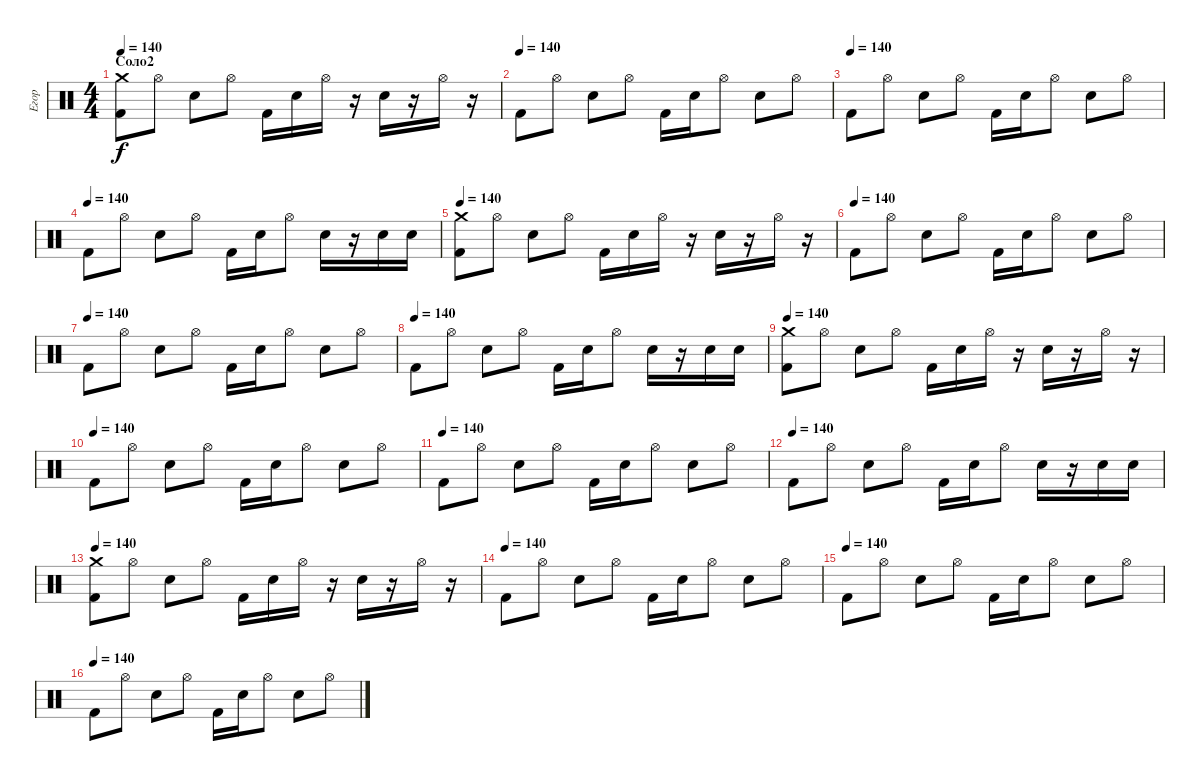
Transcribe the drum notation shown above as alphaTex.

\track ("Егор" "Егор") {instrument percussion}
\staff {score}
\articulation defaults
\ts (4 4)
\section ("" "Соло2")
\tempo 140
\clef neutral
\ks c
("Crash medium (hit)" "Kick (hit) 2").8{dy f} "Hi-Hat (open)".8 "Snare (hit) 2".8 "Hi-Hat (open)".8 "Kick (hit) 2".16 "Snare (hit) 2".16 "Hi-Hat (open)".16 r.16 "Snare (hit) 2".16 r.16 "Hi-Hat (open)".16 r.16 |
\tempo (140)
"Kick (hit) 2".8 "Hi-Hat (open)".8 "Snare (hit) 2".8 "Hi-Hat (open)".8 "Kick (hit) 2".16 "Snare (hit) 2".16 "Hi-Hat (open)".8 "Snare (hit) 2".8 "Hi-Hat (open)".8 |
\tempo (140)
"Kick (hit) 2".8 "Hi-Hat (open)".8 "Snare (hit) 2".8 "Hi-Hat (open)".8 "Kick (hit) 2".16 "Snare (hit) 2".16 "Hi-Hat (open)".8 "Snare (hit) 2".8 "Hi-Hat (open)".8 |
\tempo (140)
"Kick (hit) 2".8 "Hi-Hat (open)".8 "Snare (hit) 2".8 "Hi-Hat (open)".8 "Kick (hit) 2".16 "Snare (hit) 2".16 "Hi-Hat (open)".8 "Snare (hit) 2".16 r.16 "Snare (hit) 2".16 "Snare (hit) 2".16 |
\tempo 140
("Crash medium (hit)" "Kick (hit) 2").8 "Hi-Hat (open)".8 "Snare (hit) 2".8 "Hi-Hat (open)".8 "Kick (hit) 2".16 "Snare (hit) 2".16 "Hi-Hat (open)".16 r.16 "Snare (hit) 2".16 r.16 "Hi-Hat (open)".16 r.16 |
\tempo (140)
"Kick (hit) 2".8 "Hi-Hat (open)".8 "Snare (hit) 2".8 "Hi-Hat (open)".8 "Kick (hit) 2".16 "Snare (hit) 2".16 "Hi-Hat (open)".8 "Snare (hit) 2".8 "Hi-Hat (open)".8 |
\tempo (140)
"Kick (hit) 2".8 "Hi-Hat (open)".8 "Snare (hit) 2".8 "Hi-Hat (open)".8 "Kick (hit) 2".16 "Snare (hit) 2".16 "Hi-Hat (open)".8 "Snare (hit) 2".8 "Hi-Hat (open)".8 |
\tempo (140)
"Kick (hit) 2".8 "Hi-Hat (open)".8 "Snare (hit) 2".8 "Hi-Hat (open)".8 "Kick (hit) 2".16 "Snare (hit) 2".16 "Hi-Hat (open)".8 "Snare (hit) 2".16 r.16 "Snare (hit) 2".16 "Snare (hit) 2".16 |
\tempo 140
("Crash medium (hit)" "Kick (hit) 2").8 "Hi-Hat (open)".8 "Snare (hit) 2".8 "Hi-Hat (open)".8 "Kick (hit) 2".16 "Snare (hit) 2".16 "Hi-Hat (open)".16 r.16 "Snare (hit) 2".16 r.16 "Hi-Hat (open)".16 r.16 |
\tempo (140)
"Kick (hit) 2".8 "Hi-Hat (open)".8 "Snare (hit) 2".8 "Hi-Hat (open)".8 "Kick (hit) 2".16 "Snare (hit) 2".16 "Hi-Hat (open)".8 "Snare (hit) 2".8 "Hi-Hat (open)".8 |
\tempo (140)
"Kick (hit) 2".8 "Hi-Hat (open)".8 "Snare (hit) 2".8 "Hi-Hat (open)".8 "Kick (hit) 2".16 "Snare (hit) 2".16 "Hi-Hat (open)".8 "Snare (hit) 2".8 "Hi-Hat (open)".8 |
\tempo (140)
"Kick (hit) 2".8 "Hi-Hat (open)".8 "Snare (hit) 2".8 "Hi-Hat (open)".8 "Kick (hit) 2".16 "Snare (hit) 2".16 "Hi-Hat (open)".8 "Snare (hit) 2".16 r.16 "Snare (hit) 2".16 "Snare (hit) 2".16 |
\tempo 140
("Crash medium (hit)" "Kick (hit) 2").8 "Hi-Hat (open)".8 "Snare (hit) 2".8 "Hi-Hat (open)".8 "Kick (hit) 2".16 "Snare (hit) 2".16 "Hi-Hat (open)".16 r.16 "Snare (hit) 2".16 r.16 "Hi-Hat (open)".16 r.16 |
\tempo (140)
"Kick (hit) 2".8 "Hi-Hat (open)".8 "Snare (hit) 2".8 "Hi-Hat (open)".8 "Kick (hit) 2".16 "Snare (hit) 2".16 "Hi-Hat (open)".8 "Snare (hit) 2".8 "Hi-Hat (open)".8 |
\tempo (140)
"Kick (hit) 2".8 "Hi-Hat (open)".8 "Snare (hit) 2".8 "Hi-Hat (open)".8 "Kick (hit) 2".16 "Snare (hit) 2".16 "Hi-Hat (open)".8 "Snare (hit) 2".8 "Hi-Hat (open)".8 |
\tempo (140)
"Kick (hit) 2".8 "Hi-Hat (open)".8 "Snare (hit) 2".8 "Hi-Hat (open)".8 "Kick (hit) 2".16 "Snare (hit) 2".16 "Hi-Hat (open)".8 "Snare (hit) 2".8 "Hi-Hat (open)".8
